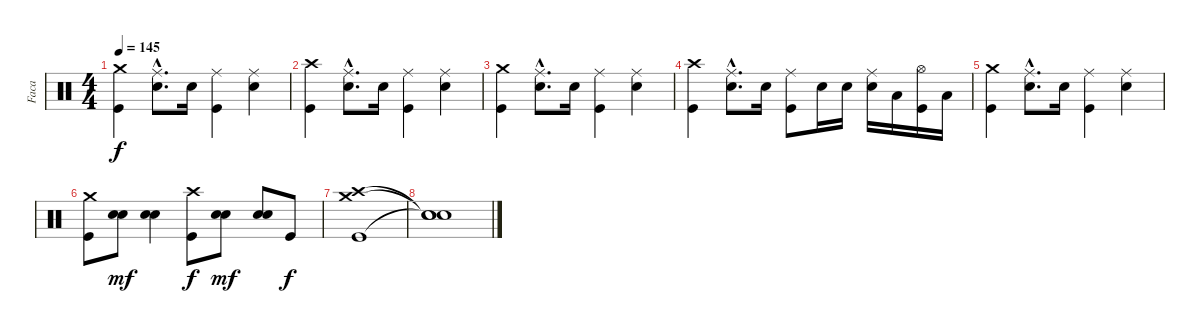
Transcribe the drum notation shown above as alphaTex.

\track ("Faca" "Faca") {instrument percussion}
\staff {score}
\articulation defaults
\ts (4 4)
\tempo 145
\clef neutral
\ks c
("Crash medium (hit)" "Kick (hit)").4{dy f} ("Ride (middle)"{hac} "Snare (hit) 2"{hac}).8{d} "Snare (hit) 2".16 ("Ride (middle)" "Kick (hit)").4 ("Ride (middle)" "Snare (hit) 2").4 |
("Crash high (hit)" "Kick (hit)").4 ("Ride (middle)"{hac} "Snare (hit) 2"{hac}).8{d} "Snare (hit) 2".16 ("Ride (middle)" "Kick (hit)").4 ("Ride (middle)" "Snare (hit) 2").4 |
("Crash medium (hit)" "Kick (hit)").4 ("Ride (middle)"{hac} "Snare (hit) 2"{hac}).8{d} "Snare (hit) 2".16 ("Ride (middle)" "Kick (hit)").4 ("Ride (middle)" "Snare (hit) 2").4 |
("Crash high (hit)" "Kick (hit)").4 ("Ride (middle)"{hac} "Snare (hit) 2"{hac}).8{d} "Snare (hit) 2".16 ("Ride (middle)" "Kick (hit)").8 "Snare (hit) 2".16 "Snare (hit) 2".16 ("Ride (middle)" "Snare (hit) 2").16 "Low Tom (hit)".16 ("Hi-Hat (open)" "Kick (hit)").16 "Low Floor Tom (hit)".16 |
("Crash medium (hit)" "Kick (hit)").4 ("Ride (middle)"{hac} "Snare (hit) 2"{hac}).8{d} "Snare (hit) 2".16 ("Ride (middle)" "Kick (hit)").4 ("Ride (middle)" "Snare (hit) 2").4 |
("Crash medium (hit)" "Kick (hit)").8 ("Snare (hit) 2" "Snare (hit) 2").8{bd 240 dy mf} ("Snare (hit) 2" "Snare (hit) 2").4{bd 240} ("Crash high (hit)" "Kick (hit)").8{dy f} ("Snare (hit) 2" "Snare (hit) 2").8{bd 240 dy mf} ("Snare (hit) 2" "Snare (hit) 2").8{bd 240} "Kick (hit)".8{dy f} |
("Crash medium (hit)" "Crash high (hit)" "Kick (hit)").1 |
("Snare (hit)"{t} "Snare (hit)"{t} "Snare (hit)"{t}).1
